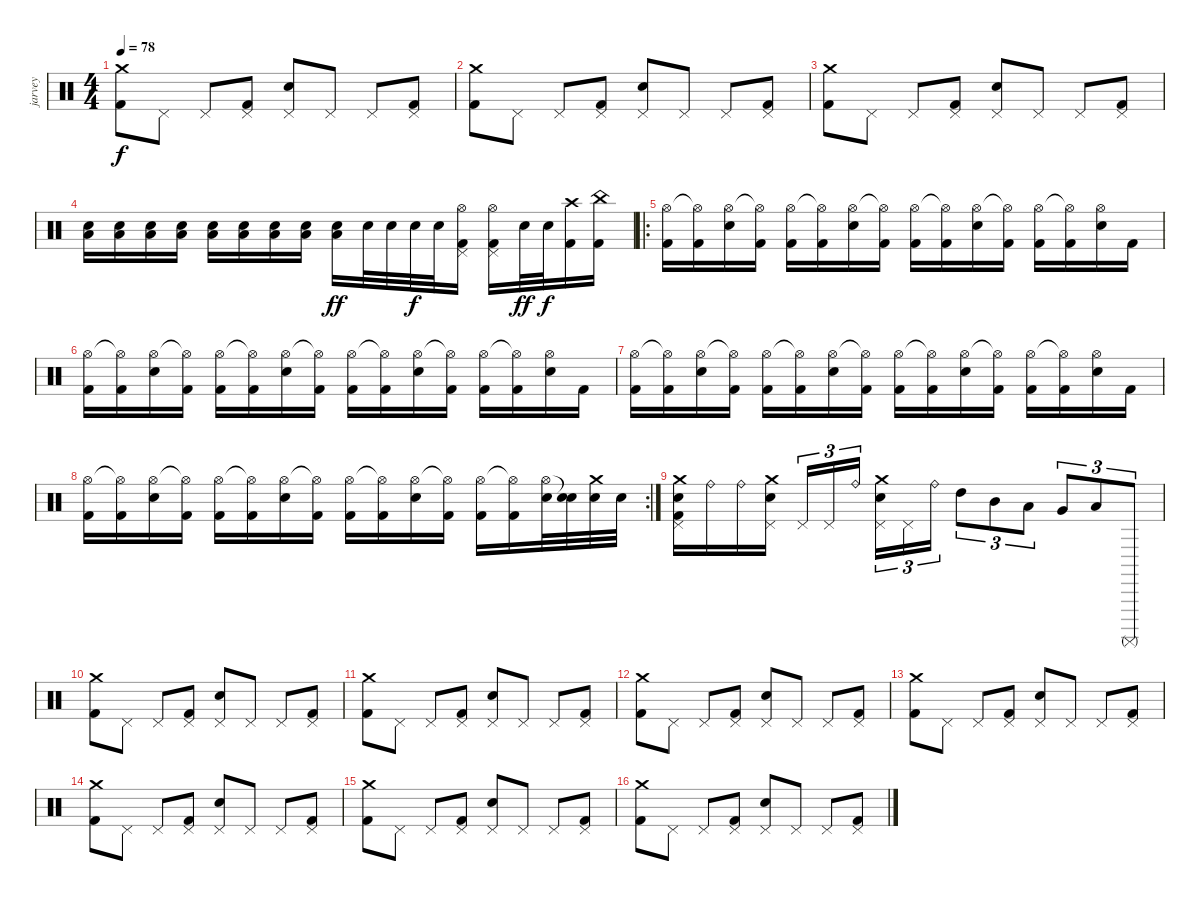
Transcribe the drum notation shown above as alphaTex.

\track ("jarvey" "jarvey") {instrument percussion}
\staff {score}
\articulation defaults
\ts (4 4)
\tempo 78
\clef neutral
\ks c
("Crash medium (hit)" "Kick (hit) 2").8{dy f} "Pedal Hi-Hat (hit)".8 "Pedal Hi-Hat (hit)".8 ("Pedal Hi-Hat (hit)" "Kick (hit) 2").8 ("Pedal Hi-Hat (hit)" "Electric Snare (hit)").8 "Pedal Hi-Hat (hit)".8 "Pedal Hi-Hat (hit)".8 ("Pedal Hi-Hat (hit)" "Kick (hit) 2").8 |
("Crash medium (hit)" "Kick (hit) 2").8 "Pedal Hi-Hat (hit)".8 "Pedal Hi-Hat (hit)".8 ("Pedal Hi-Hat (hit)" "Kick (hit) 2").8 ("Pedal Hi-Hat (hit)" "Electric Snare (hit)").8 "Pedal Hi-Hat (hit)".8 "Pedal Hi-Hat (hit)".8 ("Pedal Hi-Hat (hit)" "Kick (hit) 2").8 |
("Crash medium (hit)" "Kick (hit) 2").8 "Pedal Hi-Hat (hit)".8 "Pedal Hi-Hat (hit)".8 ("Pedal Hi-Hat (hit)" "Kick (hit) 2").8 ("Pedal Hi-Hat (hit)" "Electric Snare (hit)").8 "Pedal Hi-Hat (hit)".8 "Pedal Hi-Hat (hit)".8 ("Pedal Hi-Hat (hit)" "Kick (hit) 2").8 |
("Electric Snare (hit)" "Low Floor Tom (hit)").16{volume 8} ("Electric Snare (hit)" "Low Floor Tom (hit)").16 ("Electric Snare (hit)" "Low Floor Tom (hit)").16{volume 10} ("Electric Snare (hit)" "Low Floor Tom (hit)").16 ("Electric Snare (hit)" "Low Floor Tom (hit)").16{volume 13} ("Electric Snare (hit)" "Low Floor Tom (hit)").16 ("Electric Snare (hit)" "Low Floor Tom (hit)").16{volume 16} ("Electric Snare (hit)" "Low Floor Tom (hit)").16 ("Electric Snare (hit)" "Low Floor Tom (hit)").16{dy ff} "Electric Snare (hit)".32 "Electric Snare (hit)".32 "Electric Snare (hit)".32{dy f} "Electric Snare (hit)".32 ("Kick (hit) 2" "Pedal Hi-Hat (hit)" "Hi-Hat (open)").16 ("Kick (hit) 2" "Pedal Hi-Hat (hit)" "Hi-Hat (open)").16 "Electric Snare (hit)".32{dy ff} "Electric Snare (hit)".32{dy f} ("Kick (hit) 2" "Crash high (hit)").16 ("Kick (hit) 2" "China (hit)").16 |
\ro
("Hi-Hat (open)" "Kick (hit) 2").16 ("Hi-Hat (open)"{t} "Kick (hit) 2").16 ("Hi-Hat (open)" "Electric Snare (hit)").16 ("Hi-Hat (open)"{t} "Kick (hit) 2").16 ("Hi-Hat (open)" "Kick (hit) 2").16 ("Hi-Hat (open)"{t} "Kick (hit) 2").16 ("Hi-Hat (open)" "Electric Snare (hit)").16 ("Hi-Hat (open)"{t} "Kick (hit) 2").16 ("Hi-Hat (open)" "Kick (hit) 2").16 ("Hi-Hat (open)"{t} "Kick (hit) 2").16 ("Hi-Hat (open)" "Electric Snare (hit)").16 ("Hi-Hat (open)"{t} "Kick (hit) 2").16 ("Hi-Hat (open)" "Kick (hit) 2").16 ("Hi-Hat (open)"{t} "Kick (hit) 2").16 ("Hi-Hat (open)" "Electric Snare (hit)").16 "Kick (hit) 2".16 |
("Hi-Hat (open)" "Kick (hit) 2").16 ("Hi-Hat (open)"{t} "Kick (hit) 2").16 ("Hi-Hat (open)" "Electric Snare (hit)").16 ("Hi-Hat (open)"{t} "Kick (hit) 2").16 ("Hi-Hat (open)" "Kick (hit) 2").16 ("Hi-Hat (open)"{t} "Kick (hit) 2").16 ("Hi-Hat (open)" "Electric Snare (hit)").16 ("Hi-Hat (open)"{t} "Kick (hit) 2").16 ("Hi-Hat (open)" "Kick (hit) 2").16 ("Hi-Hat (open)"{t} "Kick (hit) 2").16 ("Hi-Hat (open)" "Electric Snare (hit)").16 ("Hi-Hat (open)"{t} "Kick (hit) 2").16 ("Hi-Hat (open)" "Kick (hit) 2").16 ("Hi-Hat (open)"{t} "Kick (hit) 2").16 ("Hi-Hat (open)" "Electric Snare (hit)").16 "Kick (hit) 2".16 |
("Hi-Hat (open)" "Kick (hit) 2").16 ("Hi-Hat (open)"{t} "Kick (hit) 2").16 ("Hi-Hat (open)" "Electric Snare (hit)").16 ("Hi-Hat (open)"{t} "Kick (hit) 2").16 ("Hi-Hat (open)" "Kick (hit) 2").16 ("Hi-Hat (open)"{t} "Kick (hit) 2").16 ("Hi-Hat (open)" "Electric Snare (hit)").16 ("Hi-Hat (open)"{t} "Kick (hit) 2").16 ("Hi-Hat (open)" "Kick (hit) 2").16 ("Hi-Hat (open)"{t} "Kick (hit) 2").16 ("Hi-Hat (open)" "Electric Snare (hit)").16 ("Hi-Hat (open)"{t} "Kick (hit) 2").16 ("Hi-Hat (open)" "Kick (hit) 2").16 ("Hi-Hat (open)"{t} "Kick (hit) 2").16 ("Hi-Hat (open)" "Electric Snare (hit)").16 "Kick (hit) 2".16 |
\rc 2
("Hi-Hat (open)" "Kick (hit) 2").16 ("Hi-Hat (open)"{t} "Kick (hit) 2").16 ("Hi-Hat (open)" "Electric Snare (hit)").16 ("Hi-Hat (open)"{t} "Kick (hit) 2").16 ("Hi-Hat (open)" "Kick (hit) 2").16 ("Hi-Hat (open)"{t} "Kick (hit) 2").16 ("Hi-Hat (open)" "Electric Snare (hit)").16 ("Hi-Hat (open)"{t} "Kick (hit) 2").16 ("Hi-Hat (open)" "Kick (hit) 2").16 ("Hi-Hat (open)"{t} "Kick (hit) 2").16 ("Hi-Hat (open)" "Electric Snare (hit)").16 ("Hi-Hat (open)"{t} "Kick (hit) 2").16 ("Hi-Hat (open)" "Kick (hit) 2").16 ("Hi-Hat (open)"{t} "Kick (hit) 2").16 ("Hi-Hat (open)" "Electric Snare (hit)").32 ("Snare (hit)"{t} "Electric Snare (hit)").32 ("Crash medium (hit)" "Electric Snare (hit)").32 "Electric Snare (hit)".32 |
("Crash medium (hit)" "Pedal Hi-Hat (hit)" "Electric Snare (hit)" "Kick (hit) 2").16 "Ride (bell)".16 "Ride (bell)".16 ("Crash medium (hit)" "Pedal Hi-Hat (hit)" "Electric Snare (hit)").16 "Pedal Hi-Hat (hit)".16{tu (3 2)} "Pedal Hi-Hat (hit)".16{tu (3 2)} "Ride (bell)".16{tu (3 2)} ("Crash medium (hit)" "Pedal Hi-Hat (hit)" "Electric Snare (hit)").16{tu (3 2)} "Pedal Hi-Hat (hit)".16{tu (3 2)} "Ride (bell)".16{tu (3 2)} "High Tom (hit)".8{tu (3 2)} "Mid Tom (hit)".8{tu (3 2)} "Low Tom (hit)".8{tu (3 2)} "Very Low Tom (hit)".8{tu (3 2)} "Low Floor Tom (hit)".8{tu (3 2)} "Surdo (mute)".8{tu (3 2)} |
("Crash medium (hit)" "Kick (hit) 2").8 "Pedal Hi-Hat (hit)".8 "Pedal Hi-Hat (hit)".8 ("Pedal Hi-Hat (hit)" "Kick (hit) 2").8 ("Pedal Hi-Hat (hit)" "Electric Snare (hit)").8 "Pedal Hi-Hat (hit)".8 "Pedal Hi-Hat (hit)".8 ("Pedal Hi-Hat (hit)" "Kick (hit) 2").8 |
("Crash medium (hit)" "Kick (hit) 2").8 "Pedal Hi-Hat (hit)".8 "Pedal Hi-Hat (hit)".8 ("Pedal Hi-Hat (hit)" "Kick (hit) 2").8 ("Pedal Hi-Hat (hit)" "Electric Snare (hit)").8 "Pedal Hi-Hat (hit)".8 "Pedal Hi-Hat (hit)".8 ("Pedal Hi-Hat (hit)" "Kick (hit) 2").8 |
("Crash medium (hit)" "Kick (hit) 2").8 "Pedal Hi-Hat (hit)".8 "Pedal Hi-Hat (hit)".8 ("Pedal Hi-Hat (hit)" "Kick (hit) 2").8 ("Pedal Hi-Hat (hit)" "Electric Snare (hit)").8 "Pedal Hi-Hat (hit)".8 "Pedal Hi-Hat (hit)".8 ("Pedal Hi-Hat (hit)" "Kick (hit) 2").8 |
("Crash medium (hit)" "Kick (hit) 2").8 "Pedal Hi-Hat (hit)".8 "Pedal Hi-Hat (hit)".8 ("Pedal Hi-Hat (hit)" "Kick (hit) 2").8 ("Pedal Hi-Hat (hit)" "Electric Snare (hit)").8 "Pedal Hi-Hat (hit)".8 "Pedal Hi-Hat (hit)".8 ("Pedal Hi-Hat (hit)" "Kick (hit) 2").8 |
("Crash medium (hit)" "Kick (hit) 2").8 "Pedal Hi-Hat (hit)".8 "Pedal Hi-Hat (hit)".8 ("Pedal Hi-Hat (hit)" "Kick (hit) 2").8 ("Pedal Hi-Hat (hit)" "Electric Snare (hit)").8 "Pedal Hi-Hat (hit)".8 "Pedal Hi-Hat (hit)".8 ("Pedal Hi-Hat (hit)" "Kick (hit) 2").8 |
("Crash medium (hit)" "Kick (hit) 2").8 "Pedal Hi-Hat (hit)".8 "Pedal Hi-Hat (hit)".8 ("Pedal Hi-Hat (hit)" "Kick (hit) 2").8 ("Pedal Hi-Hat (hit)" "Electric Snare (hit)").8 "Pedal Hi-Hat (hit)".8 "Pedal Hi-Hat (hit)".8 ("Pedal Hi-Hat (hit)" "Kick (hit) 2").8 |
("Crash medium (hit)" "Kick (hit) 2").8 "Pedal Hi-Hat (hit)".8 "Pedal Hi-Hat (hit)".8 ("Pedal Hi-Hat (hit)" "Kick (hit) 2").8 ("Pedal Hi-Hat (hit)" "Electric Snare (hit)").8 "Pedal Hi-Hat (hit)".8 "Pedal Hi-Hat (hit)".8 ("Pedal Hi-Hat (hit)" "Kick (hit) 2").8
